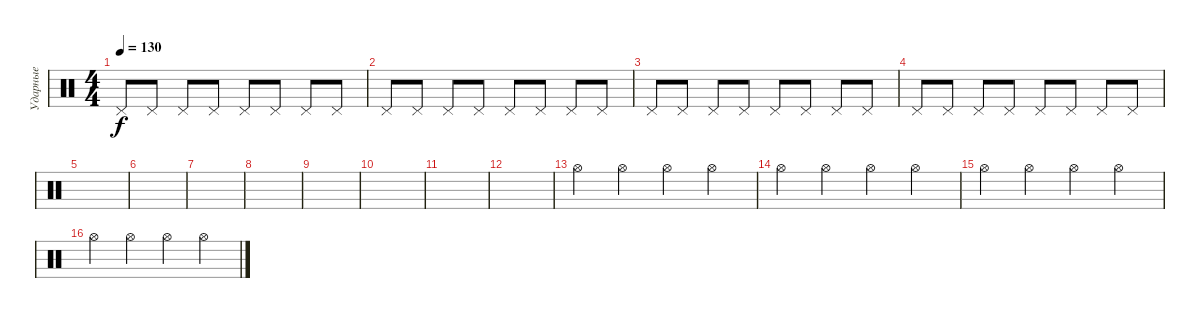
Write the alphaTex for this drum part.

\track ("Ударные" "Ударные") {instrument percussion}
\staff {score}
\articulation defaults
\ts (4 4)
\tempo 130
\clef neutral
\ks c "Pedal Hi-Hat (hit)".8{dy f} "Pedal Hi-Hat (hit)".8 "Pedal Hi-Hat (hit)".8 "Pedal Hi-Hat (hit)".8 "Pedal Hi-Hat (hit)".8 "Pedal Hi-Hat (hit)".8 "Pedal Hi-Hat (hit)".8 "Pedal Hi-Hat (hit)".8
|
"Pedal Hi-Hat (hit)".8 "Pedal Hi-Hat (hit)".8 "Pedal Hi-Hat (hit)".8 "Pedal Hi-Hat (hit)".8 "Pedal Hi-Hat (hit)".8 "Pedal Hi-Hat (hit)".8 "Pedal Hi-Hat (hit)".8 "Pedal Hi-Hat (hit)".8 |
"Pedal Hi-Hat (hit)".8 "Pedal Hi-Hat (hit)".8 "Pedal Hi-Hat (hit)".8 "Pedal Hi-Hat (hit)".8 "Pedal Hi-Hat (hit)".8 "Pedal Hi-Hat (hit)".8 "Pedal Hi-Hat (hit)".8 "Pedal Hi-Hat (hit)".8 |
"Pedal Hi-Hat (hit)".8 "Pedal Hi-Hat (hit)".8 "Pedal Hi-Hat (hit)".8 "Pedal Hi-Hat (hit)".8 "Pedal Hi-Hat (hit)".8 "Pedal Hi-Hat (hit)".8 "Pedal Hi-Hat (hit)".8 "Pedal Hi-Hat (hit)".8 |
|
|
|
|
|
|
|
|
"Hi-Hat (open)".4 "Hi-Hat (open)".4 "Hi-Hat (open)".4 "Hi-Hat (open)".4 |
"Hi-Hat (open)".4 "Hi-Hat (open)".4 "Hi-Hat (open)".4 "Hi-Hat (open)".4 |
"Hi-Hat (open)".4 "Hi-Hat (open)".4 "Hi-Hat (open)".4 "Hi-Hat (open)".4 |
"Hi-Hat (open)".4 "Hi-Hat (open)".4 "Hi-Hat (open)".4 "Hi-Hat (open)".4
